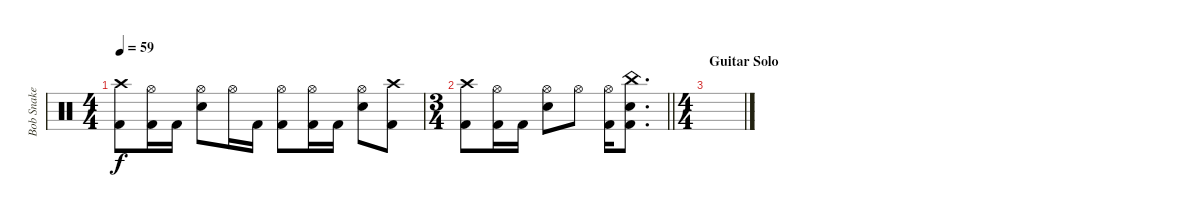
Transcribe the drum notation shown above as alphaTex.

\track ("Bob Snake" "Bob Snake") {instrument percussion}
\staff {score}
\articulation defaults
\ts (4 4)
\tempo 59
\clef neutral
\ks c
("Crash high (hit)" "Kick (hit) 2").8{dy f} ("Hi-Hat (open)" "Kick (hit) 2").16 "Kick (hit) 2".16 ("Hi-Hat (open)" "Snare (hit) 2").8 "Hi-Hat (open)".16 "Kick (hit) 2".16 ("Hi-Hat (open)" "Kick (hit) 2").8 ("Hi-Hat (open)" "Kick (hit) 2").16 "Kick (hit) 2".16 ("Hi-Hat (open)" "Snare (hit) 2").8 ("Crash high (hit)" "Kick (hit) 2").8 |
\ts (3 4)
\barLineRight lightlight
("Crash high (hit)" "Kick (hit) 2").8 ("Hi-Hat (open)" "Kick (hit) 2").16 "Kick (hit) 2".16 ("Hi-Hat (open)" "Snare (hit) 2").8 "Hi-Hat (open)".8 ("Hi-Hat (open)" "Kick (hit) 2").16 ("China (hit)" "Snare (hit) 2" "Kick (hit) 2").8{d} |
\ts (4 4)
\section ("" "Guitar Solo")
